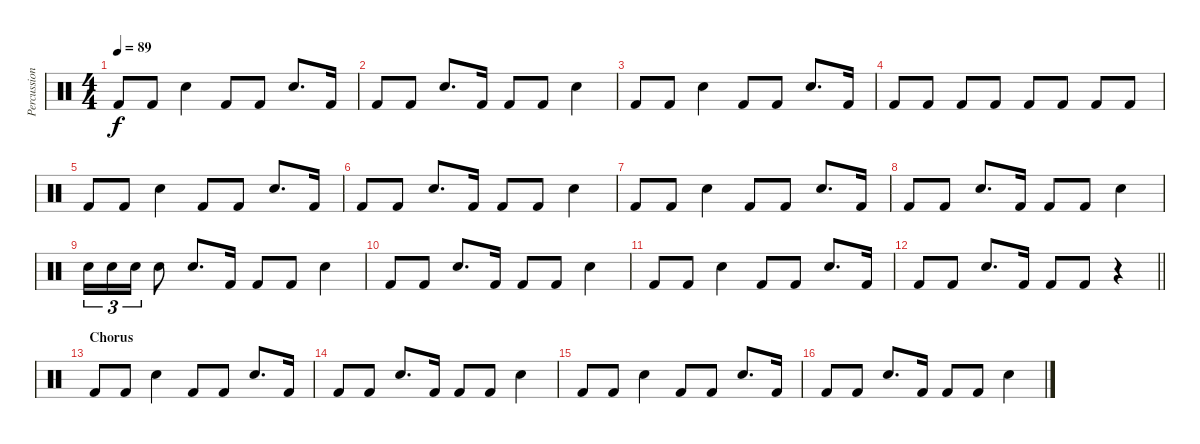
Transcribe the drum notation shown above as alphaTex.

\track ("Percussion" "Percussion") {instrument percussion}
\staff {score}
\articulation defaults
\ts (4 4)
\tempo 89
\clef neutral
\ks c "Kick (hit) 2".8{dy f} "Kick (hit) 2".8 "Snare (hit) 2".4 "Kick (hit) 2".8 "Kick (hit) 2".8 "Snare (hit) 2".8{d} "Kick (hit) 2".16
|
"Kick (hit) 2".8 "Kick (hit) 2".8 "Snare (hit) 2".8{d} "Kick (hit) 2".16 "Kick (hit) 2".8 "Kick (hit) 2".8 "Snare (hit) 2".4 |
"Kick (hit) 2".8 "Kick (hit) 2".8 "Snare (hit) 2".4 "Kick (hit) 2".8 "Kick (hit) 2".8 "Snare (hit) 2".8{d} "Kick (hit) 2".16 |
"Kick (hit) 2".8 "Kick (hit) 2".8 "Kick (hit) 2".8 "Kick (hit) 2".8 "Kick (hit) 2".8 "Kick (hit) 2".8 "Kick (hit) 2".8 "Kick (hit) 2".8 |
"Kick (hit) 2".8 "Kick (hit) 2".8 "Snare (hit) 2".4 "Kick (hit) 2".8 "Kick (hit) 2".8 "Snare (hit) 2".8{d} "Kick (hit) 2".16 |
"Kick (hit) 2".8 "Kick (hit) 2".8 "Snare (hit) 2".8{d} "Kick (hit) 2".16 "Kick (hit) 2".8 "Kick (hit) 2".8 "Snare (hit) 2".4 |
"Kick (hit) 2".8 "Kick (hit) 2".8 "Snare (hit) 2".4 "Kick (hit) 2".8 "Kick (hit) 2".8 "Snare (hit) 2".8{d} "Kick (hit) 2".16 |
"Kick (hit) 2".8 "Kick (hit) 2".8 "Snare (hit) 2".8{d} "Kick (hit) 2".16 "Kick (hit) 2".8 "Kick (hit) 2".8 "Snare (hit) 2".4 |
"Snare (hit) 2".16{tu (3 2)} "Snare (hit) 2".16{tu (3 2)} "Snare (hit) 2".16{tu (3 2)} "Snare (hit) 2".8 "Snare (hit) 2".8{d} "Kick (hit) 2".16 "Kick (hit) 2".8 "Kick (hit) 2".8 "Snare (hit) 2".4 |
"Kick (hit) 2".8 "Kick (hit) 2".8 "Snare (hit) 2".8{d} "Kick (hit) 2".16 "Kick (hit) 2".8 "Kick (hit) 2".8 "Snare (hit) 2".4 |
"Kick (hit) 2".8 "Kick (hit) 2".8 "Snare (hit) 2".4 "Kick (hit) 2".8 "Kick (hit) 2".8 "Snare (hit) 2".8{d} "Kick (hit) 2".16 |
\barLineRight lightlight "Kick (hit) 2".8 "Kick (hit) 2".8 "Snare (hit) 2".8{d} "Kick (hit) 2".16 "Kick (hit) 2".8 "Kick (hit) 2".8
r.4 |
\section ("" "Chorus")
"Kick (hit) 2".8 "Kick (hit) 2".8 "Snare (hit) 2".4 "Kick (hit) 2".8 "Kick (hit) 2".8 "Snare (hit) 2".8{d} "Kick (hit) 2".16 |
"Kick (hit) 2".8 "Kick (hit) 2".8 "Snare (hit) 2".8{d} "Kick (hit) 2".16 "Kick (hit) 2".8 "Kick (hit) 2".8 "Snare (hit) 2".4 |
"Kick (hit) 2".8 "Kick (hit) 2".8 "Snare (hit) 2".4 "Kick (hit) 2".8 "Kick (hit) 2".8 "Snare (hit) 2".8{d} "Kick (hit) 2".16 |
"Kick (hit) 2".8 "Kick (hit) 2".8 "Snare (hit) 2".8{d} "Kick (hit) 2".16 "Kick (hit) 2".8 "Kick (hit) 2".8 "Snare (hit) 2".4
